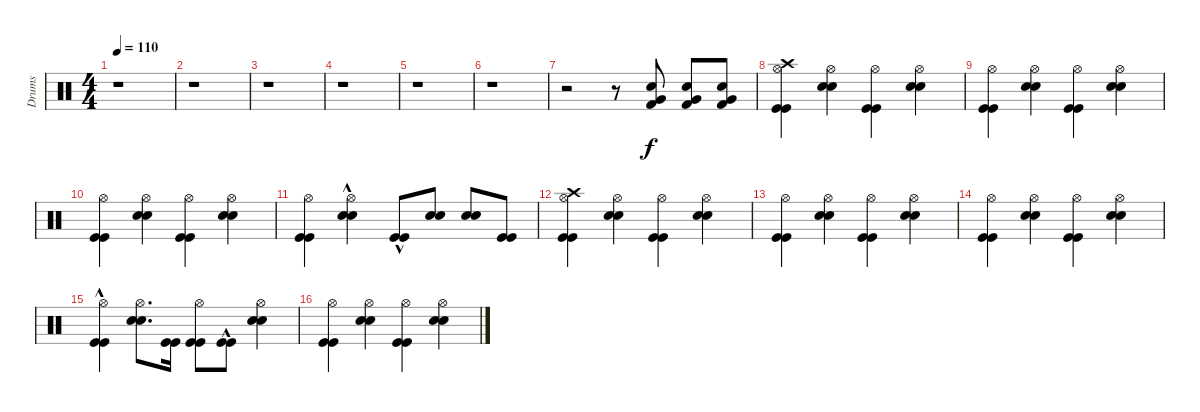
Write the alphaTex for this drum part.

\track ("Drums" "Drums") {instrument percussion}
\staff {score}
\articulation defaults
\ts (4 4)
\tempo 110
\clef neutral
\ks c
r.1{dy f} |
r.1 |
r.1 |
r.1 |
r.1 |
r.1 |
r.2 r.8 ("Kick (hit) 2" "Very Low Tom (hit)" "Electric Snare (hit)").8 ("Kick (hit) 2" "Very Low Tom (hit)" "Electric Snare (hit)").8 ("Kick (hit) 2" "Very Low Tom (hit)" "Electric Snare (hit)").8 |
("Kick (hit)" "Kick (hit)" "Hi-Hat (open)" "Crash high (hit)").4 ("Snare (hit) 2" "Snare (hit) 2" "Hi-Hat (open)").4 ("Kick (hit)" "Kick (hit)" "Hi-Hat (open)").4 ("Snare (hit) 2" "Snare (hit) 2" "Hi-Hat (open)").4 |
("Kick (hit)" "Kick (hit)" "Hi-Hat (open)").4 ("Snare (hit) 2" "Snare (hit) 2" "Hi-Hat (open)").4 ("Kick (hit)" "Kick (hit)" "Hi-Hat (open)").4 ("Snare (hit) 2" "Snare (hit) 2" "Hi-Hat (open)").4 |
("Kick (hit)" "Kick (hit)" "Hi-Hat (open)").4 ("Snare (hit) 2" "Snare (hit) 2" "Hi-Hat (open)").4 ("Kick (hit)" "Kick (hit)" "Hi-Hat (open)").4 ("Snare (hit) 2" "Snare (hit) 2" "Hi-Hat (open)").4 |
("Kick (hit)" "Kick (hit)" "Hi-Hat (open)").4 ("Snare (hit) 2"{hac} "Snare (hit) 2"{hac} "Hi-Hat (open)"{hac}).4 ("Kick (hit)"{hac} "Kick (hit)"{hac}).8 ("Snare (hit) 2" "Snare (hit) 2").8 ("Snare (hit) 2" "Snare (hit) 2").8 ("Kick (hit)" "Kick (hit)").8 |
("Kick (hit)" "Kick (hit)" "Hi-Hat (open)" "Crash high (hit)").4 ("Snare (hit) 2" "Snare (hit) 2" "Hi-Hat (open)").4 ("Kick (hit)" "Kick (hit)" "Hi-Hat (open)").4 ("Snare (hit) 2" "Snare (hit) 2" "Hi-Hat (open)").4 |
("Kick (hit)" "Kick (hit)" "Hi-Hat (open)").4 ("Snare (hit) 2" "Snare (hit) 2" "Hi-Hat (open)").4 ("Kick (hit)" "Kick (hit)" "Hi-Hat (open)").4 ("Snare (hit) 2" "Snare (hit) 2" "Hi-Hat (open)").4 |
("Kick (hit)" "Kick (hit)" "Hi-Hat (open)").4 ("Snare (hit) 2" "Snare (hit) 2" "Hi-Hat (open)").4 ("Kick (hit)" "Kick (hit)" "Hi-Hat (open)").4 ("Snare (hit) 2" "Snare (hit) 2" "Hi-Hat (open)").4 |
("Kick (hit)"{hac} "Kick (hit)"{hac} "Hi-Hat (open)").4 ("Snare (hit) 2" "Snare (hit) 2" "Hi-Hat (open)").8{d} ("Kick (hit)" "Kick (hit)").16 ("Kick (hit)" "Kick (hit)" "Hi-Hat (open)").8 ("Kick (hit)"{hac} "Kick (hit)"{hac}).8 ("Snare (hit) 2" "Snare (hit) 2" "Hi-Hat (open)").4 |
("Kick (hit)" "Kick (hit)" "Hi-Hat (open)").4 ("Snare (hit) 2" "Snare (hit) 2" "Hi-Hat (open)").4 ("Kick (hit)" "Kick (hit)" "Hi-Hat (open)").4 ("Snare (hit) 2" "Snare (hit) 2" "Hi-Hat (open)").4
